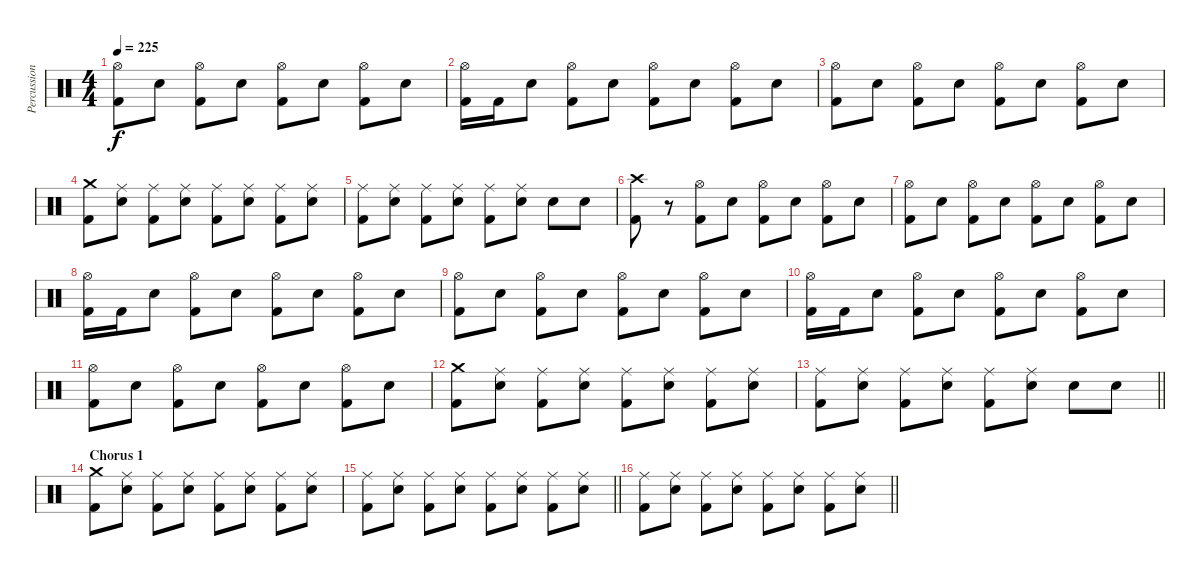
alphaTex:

\track ("Percussion" "Percussion") {instrument percussion}
\staff {score}
\articulation defaults
\ts (4 4)
\tempo 225
\clef neutral
\ks c
("Hi-Hat (open)" "Kick (hit) 2").8{dy f} "Electric Snare (hit)".8 ("Hi-Hat (open)" "Kick (hit) 2").8 "Electric Snare (hit)".8 ("Hi-Hat (open)" "Kick (hit) 2").8 "Electric Snare (hit)".8 ("Hi-Hat (open)" "Kick (hit) 2").8 "Electric Snare (hit)".8 |
("Hi-Hat (open)" "Kick (hit) 2").16 "Kick (hit) 2".16 "Electric Snare (hit)".8 ("Hi-Hat (open)" "Kick (hit) 2").8 "Electric Snare (hit)".8 ("Hi-Hat (open)" "Kick (hit) 2").8 "Electric Snare (hit)".8 ("Hi-Hat (open)" "Kick (hit) 2").8 "Electric Snare (hit)".8 |
("Hi-Hat (open)" "Kick (hit) 2").8 "Electric Snare (hit)".8 ("Hi-Hat (open)" "Kick (hit) 2").8 "Electric Snare (hit)".8 ("Hi-Hat (open)" "Kick (hit) 2").8 "Electric Snare (hit)".8 ("Hi-Hat (open)" "Kick (hit) 2").8 "Electric Snare (hit)".8 |
("Crash medium (hit)" "Kick (hit) 2").8 ("Ride (middle)" "Electric Snare (hit)").8 ("Ride (middle)" "Kick (hit) 2").8 ("Ride (middle)" "Electric Snare (hit)").8 ("Ride (middle)" "Kick (hit) 2").8 ("Ride (middle)" "Electric Snare (hit)").8 ("Ride (middle)" "Kick (hit) 2").8 ("Ride (middle)" "Electric Snare (hit)").8 |
("Ride (middle)" "Kick (hit) 2").8 ("Ride (middle)" "Electric Snare (hit)").8 ("Ride (middle)" "Kick (hit) 2").8 ("Ride (middle)" "Electric Snare (hit)").8 ("Ride (middle)" "Kick (hit) 2").8 ("Ride (middle)" "Electric Snare (hit)").8 "Electric Snare (hit)".8 "Electric Snare (hit)".8 |
("Crash high (hit)" "Kick (hit) 2").8 r.8 ("Hi-Hat (open)" "Kick (hit) 2").8 "Electric Snare (hit)".8 ("Hi-Hat (open)" "Kick (hit) 2").8 "Electric Snare (hit)".8 ("Hi-Hat (open)" "Kick (hit) 2").8 "Electric Snare (hit)".8 |
("Hi-Hat (open)" "Kick (hit) 2").8 "Electric Snare (hit)".8 ("Hi-Hat (open)" "Kick (hit) 2").8 "Electric Snare (hit)".8 ("Hi-Hat (open)" "Kick (hit) 2").8 "Electric Snare (hit)".8 ("Hi-Hat (open)" "Kick (hit) 2").8 "Electric Snare (hit)".8 |
("Hi-Hat (open)" "Kick (hit) 2").16 "Kick (hit) 2".16 "Electric Snare (hit)".8 ("Hi-Hat (open)" "Kick (hit) 2").8 "Electric Snare (hit)".8 ("Hi-Hat (open)" "Kick (hit) 2").8 "Electric Snare (hit)".8 ("Hi-Hat (open)" "Kick (hit) 2").8 "Electric Snare (hit)".8 |
("Hi-Hat (open)" "Kick (hit) 2").8 "Electric Snare (hit)".8 ("Hi-Hat (open)" "Kick (hit) 2").8 "Electric Snare (hit)".8 ("Hi-Hat (open)" "Kick (hit) 2").8 "Electric Snare (hit)".8 ("Hi-Hat (open)" "Kick (hit) 2").8 "Electric Snare (hit)".8 |
("Hi-Hat (open)" "Kick (hit) 2").16 "Kick (hit) 2".16 "Electric Snare (hit)".8 ("Hi-Hat (open)" "Kick (hit) 2").8 "Electric Snare (hit)".8 ("Hi-Hat (open)" "Kick (hit) 2").8 "Electric Snare (hit)".8 ("Hi-Hat (open)" "Kick (hit) 2").8 "Electric Snare (hit)".8 |
("Hi-Hat (open)" "Kick (hit) 2").8 "Electric Snare (hit)".8 ("Hi-Hat (open)" "Kick (hit) 2").8 "Electric Snare (hit)".8 ("Hi-Hat (open)" "Kick (hit) 2").8 "Electric Snare (hit)".8 ("Hi-Hat (open)" "Kick (hit) 2").8 "Electric Snare (hit)".8 |
("Crash medium (hit)" "Kick (hit) 2").8 ("Ride (middle)" "Electric Snare (hit)").8 ("Ride (middle)" "Kick (hit) 2").8 ("Ride (middle)" "Electric Snare (hit)").8 ("Ride (middle)" "Kick (hit) 2").8 ("Ride (middle)" "Electric Snare (hit)").8 ("Ride (middle)" "Kick (hit) 2").8 ("Ride (middle)" "Electric Snare (hit)").8 |
\barLineRight lightlight
("Ride (middle)" "Kick (hit) 2").8 ("Ride (middle)" "Electric Snare (hit)").8 ("Ride (middle)" "Kick (hit) 2").8 ("Ride (middle)" "Electric Snare (hit)").8 ("Ride (middle)" "Kick (hit) 2").8 ("Ride (middle)" "Electric Snare (hit)").8 "Electric Snare (hit)".8 "Electric Snare (hit)".8 |
\section ("" "Chorus 1")
("Crash medium (hit)" "Kick (hit) 2").8 ("Ride (middle)" "Electric Snare (hit)").8 ("Ride (middle)" "Kick (hit) 2").8 ("Ride (middle)" "Electric Snare (hit)").8 ("Ride (middle)" "Kick (hit) 2").8 ("Ride (middle)" "Electric Snare (hit)").8 ("Ride (middle)" "Kick (hit) 2").8 ("Ride (middle)" "Electric Snare (hit)").8 |
\barLineRight lightlight
("Ride (middle)" "Kick (hit) 2").8 ("Ride (middle)" "Electric Snare (hit)").8 ("Ride (middle)" "Kick (hit) 2").8 ("Ride (middle)" "Electric Snare (hit)").8 ("Ride (middle)" "Kick (hit) 2").8 ("Ride (middle)" "Electric Snare (hit)").8 ("Ride (middle)" "Kick (hit) 2").8 ("Ride (middle)" "Electric Snare (hit)").8 |
\barLineRight lightlight
("Ride (middle)" "Kick (hit) 2").8 ("Ride (middle)" "Electric Snare (hit)").8 ("Ride (middle)" "Kick (hit) 2").8 ("Ride (middle)" "Electric Snare (hit)").8 ("Ride (middle)" "Kick (hit) 2").8 ("Ride (middle)" "Electric Snare (hit)").8 ("Ride (middle)" "Kick (hit) 2").8 ("Ride (middle)" "Electric Snare (hit)").8
